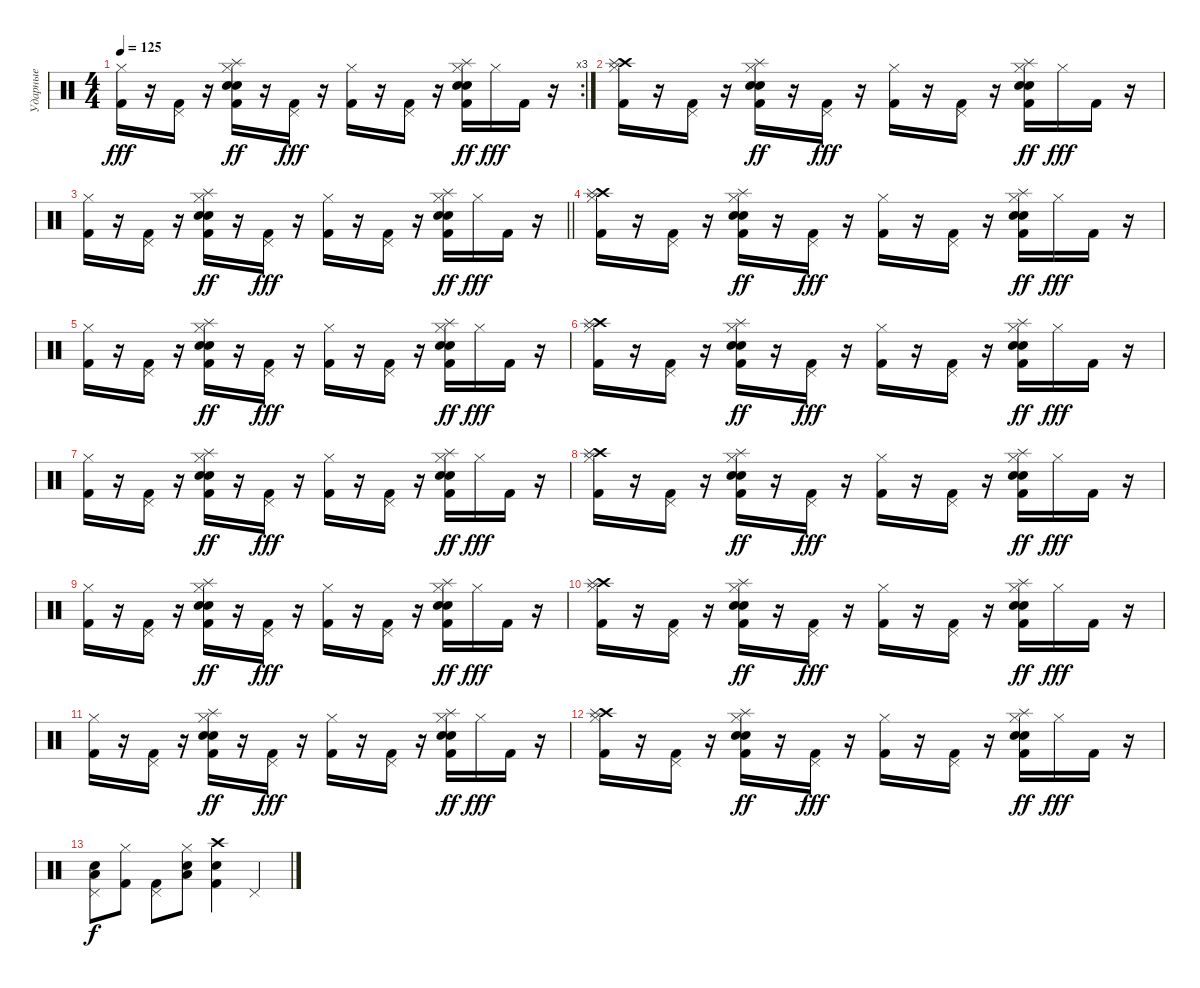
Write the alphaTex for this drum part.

\track ("Ударные" "Ударные") {instrument percussion}
\staff {score}
\articulation defaults
\rc 3
\ts (4 4)
\tempo 125
\clef neutral
\ks c
("Kick (hit) 2" "Hi-Hat (closed)").16{dy fff} r.16 ("Pedal Hi-Hat (hit)" "Kick (hit) 2").16 r.16 ("Kick (hit) 2" "Hand Clap (hit)" "Hi-Hat (closed)" "Snare (hit) 2" "Splash (hit)").16{dy ff} r.16 ("Pedal Hi-Hat (hit)" "Kick (hit) 2").16{dy fff} r.16 ("Kick (hit) 2" "Hi-Hat (closed)").16 r.16 ("Pedal Hi-Hat (hit)" "Kick (hit) 2").16 r.16 ("Kick (hit) 2" "Hand Clap (hit)" "Hi-Hat (closed)" "Snare (hit) 2" "Splash (hit)").16{dy ff} "Hi-Hat (closed)".16{dy fff} "Kick (hit) 2".16 r.16 |
("Kick (hit) 2" "Hi-Hat (closed)" "Crash high (hit)" "Splash (hit)").16 r.16 ("Pedal Hi-Hat (hit)" "Kick (hit) 2").16 r.16 ("Kick (hit) 2" "Hand Clap (hit)" "Hi-Hat (closed)" "Snare (hit) 2" "Splash (hit)").16{dy ff} r.16 ("Pedal Hi-Hat (hit)" "Kick (hit) 2").16{dy fff} r.16 ("Kick (hit) 2" "Hi-Hat (closed)").16 r.16 ("Pedal Hi-Hat (hit)" "Kick (hit) 2").16 r.16 ("Kick (hit) 2" "Hand Clap (hit)" "Hi-Hat (closed)" "Snare (hit) 2" "Splash (hit)").16{dy ff} "Hi-Hat (closed)".16{dy fff} "Kick (hit) 2".16 r.16 |
\barLineRight lightlight
("Kick (hit) 2" "Hi-Hat (closed)").16 r.16 ("Pedal Hi-Hat (hit)" "Kick (hit) 2").16 r.16 ("Kick (hit) 2" "Hand Clap (hit)" "Hi-Hat (closed)" "Snare (hit) 2" "Splash (hit)").16{dy ff} r.16 ("Pedal Hi-Hat (hit)" "Kick (hit) 2").16{dy fff} r.16 ("Kick (hit) 2" "Hi-Hat (closed)").16 r.16 ("Pedal Hi-Hat (hit)" "Kick (hit) 2").16 r.16 ("Kick (hit) 2" "Hand Clap (hit)" "Hi-Hat (closed)" "Snare (hit) 2" "Splash (hit)").16{dy ff} "Hi-Hat (closed)".16{dy fff} "Kick (hit) 2".16 r.16 |
("Kick (hit) 2" "Hi-Hat (closed)" "Crash high (hit)" "Splash (hit)").16 r.16 ("Pedal Hi-Hat (hit)" "Kick (hit) 2").16 r.16 ("Kick (hit) 2" "Hand Clap (hit)" "Hi-Hat (closed)" "Snare (hit) 2" "Splash (hit)").16{dy ff} r.16 ("Pedal Hi-Hat (hit)" "Kick (hit) 2").16{dy fff} r.16 ("Kick (hit) 2" "Hi-Hat (closed)").16 r.16 ("Pedal Hi-Hat (hit)" "Kick (hit) 2").16 r.16 ("Kick (hit) 2" "Hand Clap (hit)" "Hi-Hat (closed)" "Snare (hit) 2" "Splash (hit)").16{dy ff} "Hi-Hat (closed)".16{dy fff} "Kick (hit) 2".16 r.16 |
("Kick (hit) 2" "Hi-Hat (closed)").16 r.16 ("Pedal Hi-Hat (hit)" "Kick (hit) 2").16 r.16 ("Kick (hit) 2" "Hand Clap (hit)" "Hi-Hat (closed)" "Snare (hit) 2" "Splash (hit)").16{dy ff} r.16 ("Pedal Hi-Hat (hit)" "Kick (hit) 2").16{dy fff} r.16 ("Kick (hit) 2" "Hi-Hat (closed)").16 r.16 ("Pedal Hi-Hat (hit)" "Kick (hit) 2").16 r.16 ("Kick (hit) 2" "Hand Clap (hit)" "Hi-Hat (closed)" "Snare (hit) 2" "Splash (hit)").16{dy ff} "Hi-Hat (closed)".16{dy fff} "Kick (hit) 2".16 r.16 |
("Kick (hit) 2" "Hi-Hat (closed)" "Crash high (hit)" "Splash (hit)").16 r.16 ("Pedal Hi-Hat (hit)" "Kick (hit) 2").16 r.16 ("Kick (hit) 2" "Hand Clap (hit)" "Hi-Hat (closed)" "Snare (hit) 2" "Splash (hit)").16{dy ff} r.16 ("Pedal Hi-Hat (hit)" "Kick (hit) 2").16{dy fff} r.16 ("Kick (hit) 2" "Hi-Hat (closed)").16 r.16 ("Pedal Hi-Hat (hit)" "Kick (hit) 2").16 r.16 ("Kick (hit) 2" "Hand Clap (hit)" "Hi-Hat (closed)" "Snare (hit) 2" "Splash (hit)").16{dy ff} "Hi-Hat (closed)".16{dy fff} "Kick (hit) 2".16 r.16 |
("Kick (hit) 2" "Hi-Hat (closed)").16 r.16 ("Pedal Hi-Hat (hit)" "Kick (hit) 2").16 r.16 ("Kick (hit) 2" "Hand Clap (hit)" "Hi-Hat (closed)" "Snare (hit) 2" "Splash (hit)").16{dy ff} r.16 ("Pedal Hi-Hat (hit)" "Kick (hit) 2").16{dy fff} r.16 ("Kick (hit) 2" "Hi-Hat (closed)").16 r.16 ("Pedal Hi-Hat (hit)" "Kick (hit) 2").16 r.16 ("Kick (hit) 2" "Hand Clap (hit)" "Hi-Hat (closed)" "Snare (hit) 2" "Splash (hit)").16{dy ff} "Hi-Hat (closed)".16{dy fff} "Kick (hit) 2".16 r.16 |
("Kick (hit) 2" "Hi-Hat (closed)" "Crash high (hit)" "Splash (hit)").16 r.16 ("Pedal Hi-Hat (hit)" "Kick (hit) 2").16 r.16 ("Kick (hit) 2" "Hand Clap (hit)" "Hi-Hat (closed)" "Snare (hit) 2" "Splash (hit)").16{dy ff} r.16 ("Pedal Hi-Hat (hit)" "Kick (hit) 2").16{dy fff} r.16 ("Kick (hit) 2" "Hi-Hat (closed)").16 r.16 ("Pedal Hi-Hat (hit)" "Kick (hit) 2").16 r.16 ("Kick (hit) 2" "Hand Clap (hit)" "Hi-Hat (closed)" "Snare (hit) 2" "Splash (hit)").16{dy ff} "Hi-Hat (closed)".16{dy fff} "Kick (hit) 2".16 r.16 |
("Kick (hit) 2" "Hi-Hat (closed)").16 r.16 ("Pedal Hi-Hat (hit)" "Kick (hit) 2").16 r.16 ("Kick (hit) 2" "Hand Clap (hit)" "Hi-Hat (closed)" "Snare (hit) 2" "Splash (hit)").16{dy ff} r.16 ("Pedal Hi-Hat (hit)" "Kick (hit) 2").16{dy fff} r.16 ("Kick (hit) 2" "Hi-Hat (closed)").16 r.16 ("Pedal Hi-Hat (hit)" "Kick (hit) 2").16 r.16 ("Kick (hit) 2" "Hand Clap (hit)" "Hi-Hat (closed)" "Snare (hit) 2" "Splash (hit)").16{dy ff} "Hi-Hat (closed)".16{dy fff} "Kick (hit) 2".16 r.16 |
("Kick (hit) 2" "Hi-Hat (closed)" "Crash high (hit)" "Splash (hit)").16 r.16 ("Pedal Hi-Hat (hit)" "Kick (hit) 2").16 r.16 ("Kick (hit) 2" "Hand Clap (hit)" "Hi-Hat (closed)" "Snare (hit) 2" "Splash (hit)").16{dy ff} r.16 ("Pedal Hi-Hat (hit)" "Kick (hit) 2").16{dy fff} r.16 ("Kick (hit) 2" "Hi-Hat (closed)").16 r.16 ("Pedal Hi-Hat (hit)" "Kick (hit) 2").16 r.16 ("Kick (hit) 2" "Hand Clap (hit)" "Hi-Hat (closed)" "Snare (hit) 2" "Splash (hit)").16{dy ff} "Hi-Hat (closed)".16{dy fff} "Kick (hit) 2".16 r.16 |
("Kick (hit) 2" "Hi-Hat (closed)").16 r.16 ("Pedal Hi-Hat (hit)" "Kick (hit) 2").16 r.16 ("Kick (hit) 2" "Hand Clap (hit)" "Hi-Hat (closed)" "Snare (hit) 2" "Splash (hit)").16{dy ff} r.16 ("Pedal Hi-Hat (hit)" "Kick (hit) 2").16{dy fff} r.16 ("Kick (hit) 2" "Hi-Hat (closed)").16 r.16 ("Pedal Hi-Hat (hit)" "Kick (hit) 2").16 r.16 ("Kick (hit) 2" "Hand Clap (hit)" "Hi-Hat (closed)" "Snare (hit) 2" "Splash (hit)").16{dy ff} "Hi-Hat (closed)".16{dy fff} "Kick (hit) 2".16 r.16 |
("Kick (hit) 2" "Hi-Hat (closed)" "Crash high (hit)" "Splash (hit)").16 r.16 ("Pedal Hi-Hat (hit)" "Kick (hit) 2").16 r.16 ("Kick (hit) 2" "Hand Clap (hit)" "Hi-Hat (closed)" "Snare (hit) 2" "Splash (hit)").16{dy ff} r.16 ("Pedal Hi-Hat (hit)" "Kick (hit) 2").16{dy fff} r.16 ("Kick (hit) 2" "Hi-Hat (closed)").16 r.16 ("Pedal Hi-Hat (hit)" "Kick (hit) 2").16 r.16 ("Kick (hit) 2" "Hand Clap (hit)" "Hi-Hat (closed)" "Snare (hit) 2" "Splash (hit)").16{dy ff} "Hi-Hat (closed)".16{dy fff} "Kick (hit) 2".16 r.16 |
("Snare (hit) 2" "Pedal Hi-Hat (hit)" "Low Floor Tom (hit)").8{dy f} ("Kick (hit) 2" "Hi-Hat (closed)").8 ("Kick (hit) 2" "Pedal Hi-Hat (hit)").8 ("Hi-Hat (closed)" "Snare (hit) 2" "Low Floor Tom (hit)").8 ("Crash high (hit)" "Snare (hit) 2" "Kick (hit) 2").4 "Pedal Hi-Hat (hit)".4
